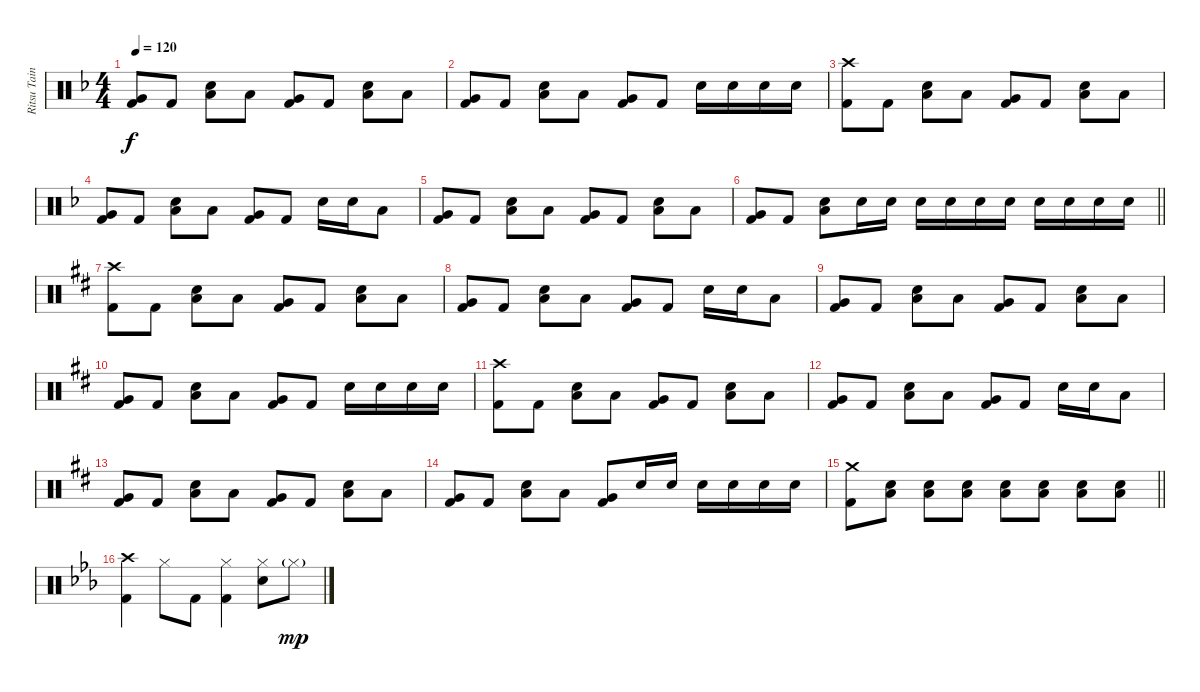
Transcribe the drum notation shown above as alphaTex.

\track ("Ritsu Tainaka" "Ritsu Tain") {instrument percussion}
\staff {score}
\articulation defaults
\ts (4 4)
\tempo 120
\clef neutral
\ks f
("Very Low Tom (hit)" "Kick (hit) 2").8{dy f} "Kick (hit) 2".8 ("Snare (hit) 2" "Low Floor Tom (hit)").8 "Low Tom (hit)".8 ("Very Low Tom (hit)" "Kick (hit) 2").8 "Kick (hit) 2".8 ("Snare (hit) 2" "Low Floor Tom (hit)").8 "Low Tom (hit)".8 |
("Very Low Tom (hit)" "Kick (hit) 2").8 "Kick (hit) 2".8 ("Snare (hit) 2" "Low Floor Tom (hit)").8 "Low Tom (hit)".8 ("Very Low Tom (hit)" "Kick (hit) 2").8 "Kick (hit) 2".8 "Snare (hit) 2".16 "Snare (hit) 2".16 "Snare (hit) 2".16 "Snare (hit) 2".16 |
("Crash high (hit)" "Kick (hit) 2").8 "Kick (hit) 2".8 ("Snare (hit) 2" "Low Floor Tom (hit)").8 "Low Tom (hit)".8 ("Very Low Tom (hit)" "Kick (hit) 2").8 "Kick (hit) 2".8 ("Snare (hit) 2" "Low Floor Tom (hit)").8 "Low Tom (hit)".8 |
("Very Low Tom (hit)" "Kick (hit) 2").8 "Kick (hit) 2".8 ("Snare (hit) 2" "Low Floor Tom (hit)").8 "Low Tom (hit)".8 ("Very Low Tom (hit)" "Kick (hit) 2").8 "Kick (hit) 2".8 "Snare (hit) 2".16 "Snare (hit) 2".16 "Low Tom (hit)".8 |
("Very Low Tom (hit)" "Kick (hit) 2").8 "Kick (hit) 2".8 ("Snare (hit) 2" "Low Floor Tom (hit)").8 "Low Tom (hit)".8 ("Very Low Tom (hit)" "Kick (hit) 2").8 "Kick (hit) 2".8 ("Snare (hit) 2" "Low Floor Tom (hit)").8 "Low Tom (hit)".8 |
\barLineRight lightlight
("Very Low Tom (hit)" "Kick (hit) 2").8 "Kick (hit) 2".8 ("Snare (hit) 2" "Low Floor Tom (hit)").8 "Snare (hit) 2".16 "Snare (hit) 2".16 "Snare (hit) 2".16 "Snare (hit) 2".16 "Snare (hit) 2".16 "Snare (hit) 2".16 "Snare (hit) 2".16 "Snare (hit) 2".16 "Snare (hit) 2".16 "Snare (hit) 2".16 |
\ks d
("Crash high (hit)" "Kick (hit) 2").8 "Kick (hit) 2".8 ("Snare (hit) 2" "Low Floor Tom (hit)").8 "Low Tom (hit)".8 ("Very Low Tom (hit)" "Kick (hit) 2").8 "Kick (hit) 2".8 ("Snare (hit) 2" "Low Floor Tom (hit)").8 "Low Tom (hit)".8 |
("Very Low Tom (hit)" "Kick (hit) 2").8 "Kick (hit) 2".8 ("Snare (hit) 2" "Low Floor Tom (hit)").8 "Low Tom (hit)".8 ("Very Low Tom (hit)" "Kick (hit) 2").8 "Kick (hit) 2".8 "Snare (hit) 2".16 "Snare (hit) 2".16 "Low Tom (hit)".8 |
("Very Low Tom (hit)" "Kick (hit) 2").8 "Kick (hit) 2".8 ("Snare (hit) 2" "Low Floor Tom (hit)").8 "Low Tom (hit)".8 ("Very Low Tom (hit)" "Kick (hit) 2").8 "Kick (hit) 2".8 ("Snare (hit) 2" "Low Floor Tom (hit)").8 "Low Tom (hit)".8 |
("Very Low Tom (hit)" "Kick (hit) 2").8 "Kick (hit) 2".8 ("Snare (hit) 2" "Low Floor Tom (hit)").8 "Low Tom (hit)".8 ("Very Low Tom (hit)" "Kick (hit) 2").8 "Kick (hit) 2".8 "Snare (hit) 2".16 "Snare (hit) 2".16 "Snare (hit) 2".16 "Snare (hit) 2".16 |
("Crash high (hit)" "Kick (hit) 2").8 "Kick (hit) 2".8 ("Snare (hit) 2" "Low Floor Tom (hit)").8 "Low Tom (hit)".8 ("Very Low Tom (hit)" "Kick (hit) 2").8 "Kick (hit) 2".8 ("Snare (hit) 2" "Low Floor Tom (hit)").8 "Low Tom (hit)".8 |
("Very Low Tom (hit)" "Kick (hit) 2").8 "Kick (hit) 2".8 ("Snare (hit) 2" "Low Floor Tom (hit)").8 "Low Tom (hit)".8 ("Very Low Tom (hit)" "Kick (hit) 2").8 "Kick (hit) 2".8 "Snare (hit) 2".16 "Snare (hit) 2".16 "Low Tom (hit)".8 |
("Very Low Tom (hit)" "Kick (hit) 2").8 "Kick (hit) 2".8 ("Snare (hit) 2" "Low Floor Tom (hit)").8 "Low Tom (hit)".8 ("Very Low Tom (hit)" "Kick (hit) 2").8 "Kick (hit) 2".8 ("Snare (hit) 2" "Low Floor Tom (hit)").8 "Low Tom (hit)".8 |
("Very Low Tom (hit)" "Kick (hit) 2").8 "Kick (hit) 2".8 ("Snare (hit) 2" "Low Floor Tom (hit)").8 "Low Tom (hit)".8 ("Very Low Tom (hit)" "Kick (hit) 2").8 "Snare (hit) 2".16 "Snare (hit) 2".16 "Snare (hit) 2".16 "Snare (hit) 2".16 "Snare (hit) 2".16 "Snare (hit) 2".16 |
\barLineRight lightlight
("Crash medium (hit)" "Kick (hit) 2").8 ("Snare (hit) 2" "Low Floor Tom (hit)").8 ("Snare (hit) 2" "Low Floor Tom (hit)").8 ("Snare (hit) 2" "Low Floor Tom (hit)").8 ("Snare (hit) 2" "Low Floor Tom (hit)").8 ("Snare (hit) 2" "Low Floor Tom (hit)").8 ("Snare (hit) 2" "Low Floor Tom (hit)").8 ("Snare (hit) 2" "Low Floor Tom (hit)").8 |
\ks eb
("Crash high (hit)" "Kick (hit) 2").4 "Hi-Hat (closed)".8 "Kick (hit) 2".8 ("Hi-Hat (closed)" "Kick (hit) 2").4 ("Hi-Hat (closed)" "Snare (hit) 2").8 "Hi-Hat (closed)"{g}.8{dy mp}
